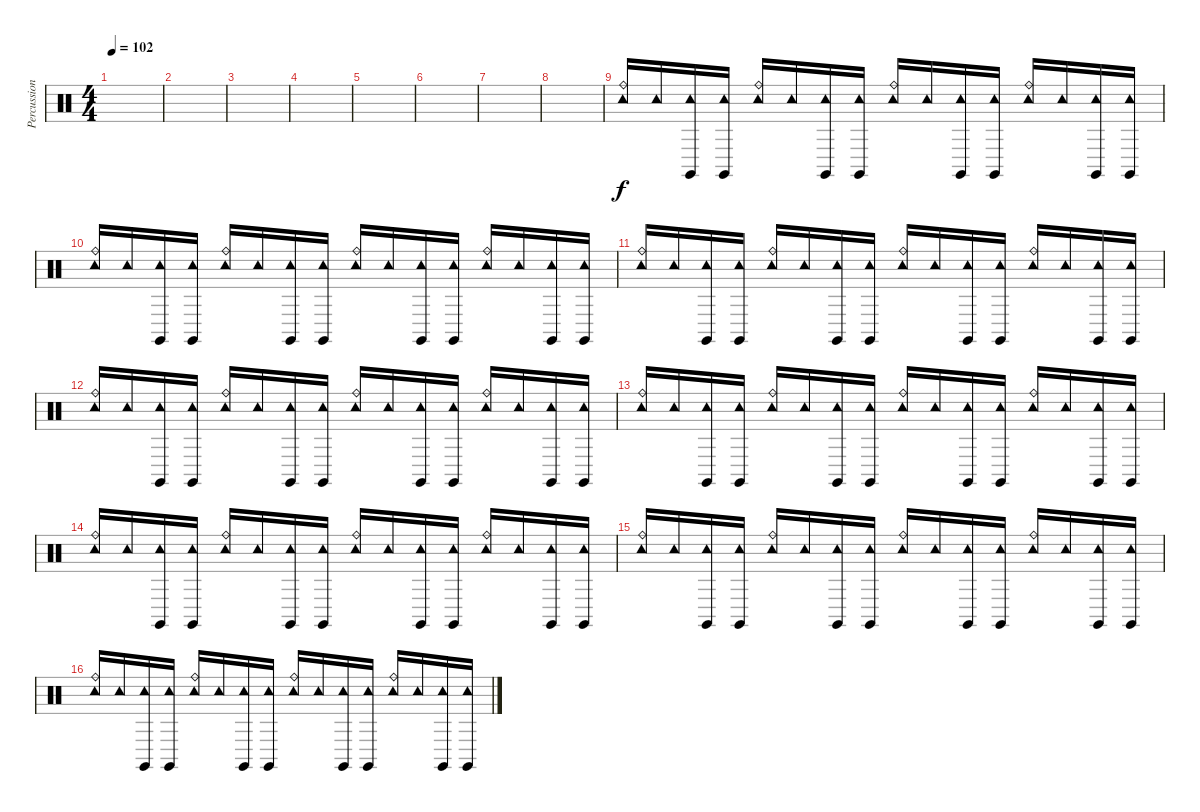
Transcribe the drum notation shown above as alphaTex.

\track ("Percussions" "Percussion") {instrument percussion}
\staff {score}
\articulation defaults
\ts (4 4)
\tempo 102
\clef neutral
\ks c
|
|
|
|
|
|
|
|
("Tambourine (hit)" "Ride (bell)").16 "Tambourine (hit)".16 ("Tambourine (hit)" "Claves (hit)").16 ("Tambourine (hit)" "Claves (hit)").16 ("Tambourine (hit)" "Ride (bell)").16 "Tambourine (hit)".16 ("Tambourine (hit)" "Claves (hit)").16 ("Tambourine (hit)" "Claves (hit)").16 ("Tambourine (hit)" "Ride (bell)").16 "Tambourine (hit)".16 ("Tambourine (hit)" "Claves (hit)").16 ("Tambourine (hit)" "Claves (hit)").16 ("Tambourine (hit)" "Ride (bell)").16 "Tambourine (hit)".16 ("Tambourine (hit)" "Claves (hit)").16 ("Tambourine (hit)" "Claves (hit)").16 |
("Tambourine (hit)" "Ride (bell)").16 "Tambourine (hit)".16 ("Tambourine (hit)" "Claves (hit)").16 ("Tambourine (hit)" "Claves (hit)").16 ("Tambourine (hit)" "Ride (bell)").16 "Tambourine (hit)".16 ("Tambourine (hit)" "Claves (hit)").16 ("Tambourine (hit)" "Claves (hit)").16 ("Tambourine (hit)" "Ride (bell)").16 "Tambourine (hit)".16 ("Tambourine (hit)" "Claves (hit)").16 ("Tambourine (hit)" "Claves (hit)").16 ("Tambourine (hit)" "Ride (bell)").16 "Tambourine (hit)".16 ("Tambourine (hit)" "Claves (hit)").16 ("Tambourine (hit)" "Claves (hit)").16 |
("Tambourine (hit)" "Ride (bell)").16 "Tambourine (hit)".16 ("Tambourine (hit)" "Claves (hit)").16 ("Tambourine (hit)" "Claves (hit)").16 ("Tambourine (hit)" "Ride (bell)").16 "Tambourine (hit)".16 ("Tambourine (hit)" "Claves (hit)").16 ("Tambourine (hit)" "Claves (hit)").16 ("Tambourine (hit)" "Ride (bell)").16 "Tambourine (hit)".16 ("Tambourine (hit)" "Claves (hit)").16 ("Tambourine (hit)" "Claves (hit)").16 ("Tambourine (hit)" "Ride (bell)").16 "Tambourine (hit)".16 ("Tambourine (hit)" "Claves (hit)").16 ("Tambourine (hit)" "Claves (hit)").16 |
("Tambourine (hit)" "Ride (bell)").16 "Tambourine (hit)".16 ("Tambourine (hit)" "Claves (hit)").16 ("Tambourine (hit)" "Claves (hit)").16 ("Tambourine (hit)" "Ride (bell)").16 "Tambourine (hit)".16 ("Tambourine (hit)" "Claves (hit)").16 ("Tambourine (hit)" "Claves (hit)").16 ("Tambourine (hit)" "Ride (bell)").16 "Tambourine (hit)".16 ("Tambourine (hit)" "Claves (hit)").16 ("Tambourine (hit)" "Claves (hit)").16 ("Tambourine (hit)" "Ride (bell)").16 "Tambourine (hit)".16 ("Tambourine (hit)" "Claves (hit)").16 ("Tambourine (hit)" "Claves (hit)").16 |
("Tambourine (hit)" "Ride (bell)").16 "Tambourine (hit)".16 ("Tambourine (hit)" "Claves (hit)").16 ("Tambourine (hit)" "Claves (hit)").16 ("Tambourine (hit)" "Ride (bell)").16 "Tambourine (hit)".16 ("Tambourine (hit)" "Claves (hit)").16 ("Tambourine (hit)" "Claves (hit)").16 ("Tambourine (hit)" "Ride (bell)").16 "Tambourine (hit)".16 ("Tambourine (hit)" "Claves (hit)").16 ("Tambourine (hit)" "Claves (hit)").16 ("Tambourine (hit)" "Ride (bell)").16 "Tambourine (hit)".16 ("Tambourine (hit)" "Claves (hit)").16 ("Tambourine (hit)" "Claves (hit)").16 |
("Tambourine (hit)" "Ride (bell)").16 "Tambourine (hit)".16 ("Tambourine (hit)" "Claves (hit)").16 ("Tambourine (hit)" "Claves (hit)").16 ("Tambourine (hit)" "Ride (bell)").16 "Tambourine (hit)".16 ("Tambourine (hit)" "Claves (hit)").16 ("Tambourine (hit)" "Claves (hit)").16 ("Tambourine (hit)" "Ride (bell)").16 "Tambourine (hit)".16 ("Tambourine (hit)" "Claves (hit)").16 ("Tambourine (hit)" "Claves (hit)").16 ("Tambourine (hit)" "Ride (bell)").16 "Tambourine (hit)".16 ("Tambourine (hit)" "Claves (hit)").16 ("Tambourine (hit)" "Claves (hit)").16 |
("Tambourine (hit)" "Ride (bell)").16 "Tambourine (hit)".16 ("Tambourine (hit)" "Claves (hit)").16 ("Tambourine (hit)" "Claves (hit)").16 ("Tambourine (hit)" "Ride (bell)").16 "Tambourine (hit)".16 ("Tambourine (hit)" "Claves (hit)").16 ("Tambourine (hit)" "Claves (hit)").16 ("Tambourine (hit)" "Ride (bell)").16 "Tambourine (hit)".16 ("Tambourine (hit)" "Claves (hit)").16 ("Tambourine (hit)" "Claves (hit)").16 ("Tambourine (hit)" "Ride (bell)").16 "Tambourine (hit)".16 ("Tambourine (hit)" "Claves (hit)").16 ("Tambourine (hit)" "Claves (hit)").16 |
("Tambourine (hit)" "Ride (bell)").16 "Tambourine (hit)".16 ("Tambourine (hit)" "Claves (hit)").16 ("Tambourine (hit)" "Claves (hit)").16 ("Tambourine (hit)" "Ride (bell)").16 "Tambourine (hit)".16 ("Tambourine (hit)" "Claves (hit)").16 ("Tambourine (hit)" "Claves (hit)").16 ("Tambourine (hit)" "Ride (bell)").16 "Tambourine (hit)".16 ("Tambourine (hit)" "Claves (hit)").16 ("Tambourine (hit)" "Claves (hit)").16 ("Tambourine (hit)" "Ride (bell)").16 "Tambourine (hit)".16 ("Tambourine (hit)" "Claves (hit)").16 ("Tambourine (hit)" "Claves (hit)").16
